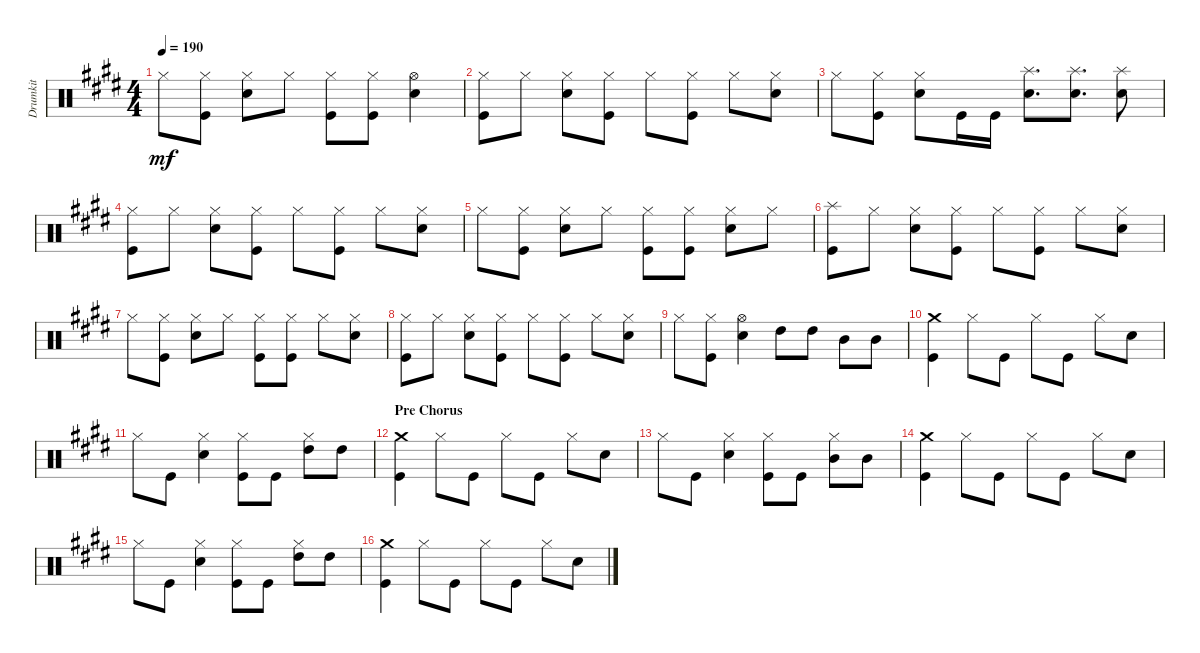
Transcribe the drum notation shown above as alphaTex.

\track ("Drumkit" "Drumkit") {instrument percussion}
\staff {score}
\articulation defaults
\ts (4 4)
\tempo 190
\clef neutral
\ks e "Hi-Hat (closed)".8{dy mf}
("Kick (hit)" "Hi-Hat (closed)").8 ("Hi-Hat (closed)" "Snare (hit) 2").8 "Hi-Hat (closed)".8 ("Hi-Hat (closed)" "Kick (hit)").8 ("Hi-Hat (closed)" "Kick (hit)").8 ("Hi-Hat (open)" "Snare (hit) 2").4 |
("Hi-Hat (closed)" "Kick (hit)").8 "Hi-Hat (closed)".8 ("Hi-Hat (closed)" "Snare (hit) 2").8 ("Hi-Hat (closed)" "Kick (hit)").8 "Hi-Hat (closed)".8 ("Hi-Hat (closed)" "Kick (hit)").8 "Hi-Hat (closed)".8 ("Hi-Hat (closed)" "Snare (hit) 2").8 |
"Hi-Hat (closed)".8 ("Kick (hit)" "Hi-Hat (closed)").8 ("Hi-Hat (closed)" "Snare (hit) 2").8 "Kick (hit)".16 "Kick (hit)".16 ("Splash (hit)" "Snare (hit) 2").8{d} ("Splash (hit)" "Snare (hit) 2").8{d} ("Splash (hit)" "Snare (hit) 2").8 |
("Hi-Hat (closed)" "Kick (hit)").8 "Hi-Hat (closed)".8 ("Hi-Hat (closed)" "Snare (hit) 2").8 ("Hi-Hat (closed)" "Kick (hit)").8 "Hi-Hat (closed)".8 ("Hi-Hat (closed)" "Kick (hit)").8 "Hi-Hat (closed)".8 ("Hi-Hat (closed)" "Snare (hit) 2").8 |
"Hi-Hat (closed)".8 ("Kick (hit)" "Hi-Hat (closed)").8 ("Hi-Hat (closed)" "Snare (hit) 2").8 "Hi-Hat (closed)".8 ("Hi-Hat (closed)" "Kick (hit)").8 ("Hi-Hat (closed)" "Kick (hit)").8 ("Hi-Hat (closed)" "Snare (hit) 2").8 "Hi-Hat (closed)".8 |
("Splash (hit)" "Kick (hit)").8 "Hi-Hat (closed)".8 ("Hi-Hat (closed)" "Snare (hit) 2").8 ("Hi-Hat (closed)" "Kick (hit)").8 "Hi-Hat (closed)".8 ("Hi-Hat (closed)" "Kick (hit)").8 "Hi-Hat (closed)".8 ("Hi-Hat (closed)" "Snare (hit) 2").8 |
"Hi-Hat (closed)".8 ("Hi-Hat (closed)" "Kick (hit)").8 ("Hi-Hat (closed)" "Snare (hit) 2").8 "Hi-Hat (closed)".8 ("Hi-Hat (closed)" "Kick (hit)").8 ("Hi-Hat (closed)" "Kick (hit)").8 "Hi-Hat (closed)".8 ("Hi-Hat (closed)" "Snare (hit) 2").8 |
("Hi-Hat (closed)" "Kick (hit)").8 "Hi-Hat (closed)".8 ("Hi-Hat (closed)" "Snare (hit) 2").8 ("Hi-Hat (closed)" "Kick (hit)").8 "Hi-Hat (closed)".8 ("Hi-Hat (closed)" "Kick (hit)").8 "Hi-Hat (closed)".8 ("Hi-Hat (closed)" "Snare (hit) 2").8 |
"Hi-Hat (closed)".8 ("Hi-Hat (closed)" "Kick (hit)").8 ("Hi-Hat (open)" "Snare (hit) 2").4 "High Tom (hit)".8 "High Tom (hit)".8 "Mid Tom (hit)".8 "Mid Tom (hit)".8 |
("Crash medium (hit)" "Kick (hit)").4 "Hi-Hat (closed)".8 "Kick (hit)".8 "Hi-Hat (closed)".8 "Kick (hit)".8 "Hi-Hat (closed)".8 "Snare (hit) 2".8 |
"Hi-Hat (closed)".8 "Kick (hit)".8 ("Hi-Hat (closed)" "Snare (hit) 2").4 ("Kick (hit)" "Hi-Hat (closed)").8 "Kick (hit)".8 ("Hi-Hat (closed)" "High Tom (hit)").8 "High Tom (hit)".8 |
\section ("" "Pre Chorus")
("Crash medium (hit)" "Kick (hit)").4 "Hi-Hat (closed)".8 "Kick (hit)".8 "Hi-Hat (closed)".8 "Kick (hit)".8 "Hi-Hat (closed)".8 "Snare (hit) 2".8 |
"Hi-Hat (closed)".8 "Kick (hit)".8 ("Hi-Hat (closed)" "Snare (hit) 2").4 ("Kick (hit)" "Hi-Hat (closed)").8 "Kick (hit)".8 ("Hi-Hat (closed)" "Mid Tom (hit)").8 "Mid Tom (hit)".8 |
("Crash medium (hit)" "Kick (hit)").4 "Hi-Hat (closed)".8 "Kick (hit)".8 "Hi-Hat (closed)".8 "Kick (hit)".8 "Hi-Hat (closed)".8 "Snare (hit) 2".8 |
"Hi-Hat (closed)".8 "Kick (hit)".8 ("Hi-Hat (closed)" "Snare (hit) 2").4 ("Kick (hit)" "Hi-Hat (closed)").8 "Kick (hit)".8 ("Hi-Hat (closed)" "High Tom (hit)").8 "High Tom (hit)".8 |
("Crash medium (hit)" "Kick (hit)").4 "Hi-Hat (closed)".8 "Kick (hit)".8 "Hi-Hat (closed)".8 "Kick (hit)".8 "Hi-Hat (closed)".8 "Snare (hit) 2".8
